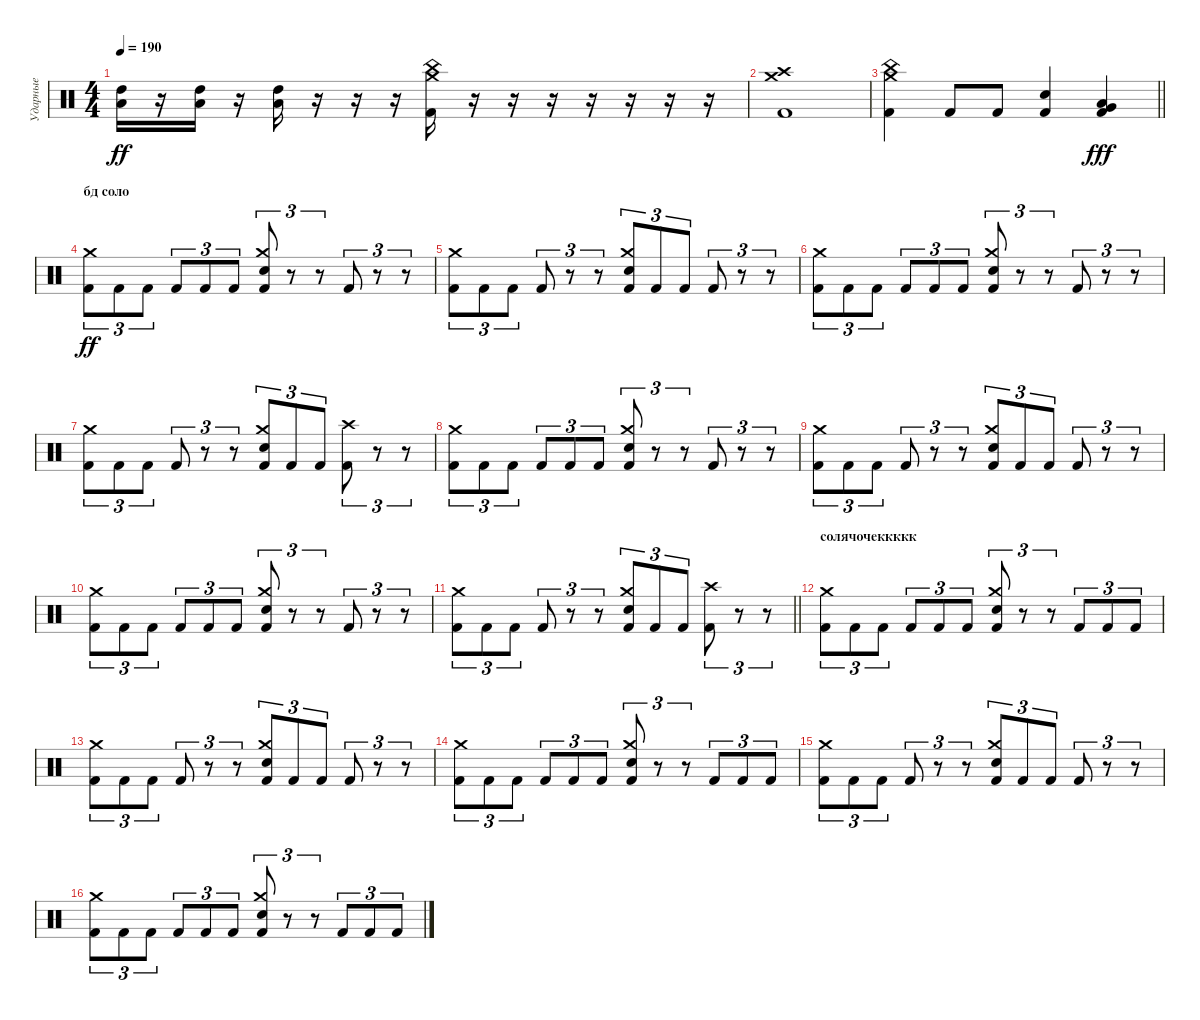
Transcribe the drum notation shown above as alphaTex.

\track ("Ударные" "Ударные") {instrument percussion}
\staff {score}
\articulation defaults
\ts (4 4)
\tempo 190
\clef neutral
\ks c
("Low Tom (hit)" "High Tom (hit)").16{dy ff} r.16 ("Low Tom (hit)" "High Tom (hit)").16 r.16 ("Low Tom (hit)" "High Tom (hit)").16 r.16 r.16 r.16 ("Kick (hit) 2" "China (hit)" "Crash medium (hit)").16 r.16 r.16 r.16 r.16 r.16 r.16 r.16 |
("Kick (hit) 2" "Crash medium (hit)" "Crash high (hit)").1 |
\barLineRight lightlight
("Kick (hit) 2" "China (hit)" "Crash medium (hit)").4 "Kick (hit) 2".8 "Kick (hit) 2".8 ("Kick (hit) 2" "Snare (hit) 2").4 ("Kick (hit) 2" "Low Tom (hit)" "Very Low Tom (hit)").4{dy fff} |
\section ("" "бд соло")
("Kick (hit) 2" "Crash medium (hit)").8{tu (3 2) dy ff} "Kick (hit) 2".8{tu (3 2)} "Kick (hit) 2".8{tu (3 2)} "Kick (hit) 2".8{tu (3 2)} "Kick (hit) 2".8{tu (3 2)} "Kick (hit) 2".8{tu (3 2)} ("Kick (hit) 2" "Snare (hit) 2" "Crash medium (hit)").8{tu (3 2)} r.8{tu (3 2)} r.8{tu (3 2)} "Kick (hit) 2".8{tu (3 2)} r.8{tu (3 2)} r.8{tu (3 2)} |
("Kick (hit) 2" "Crash medium (hit)").8{tu (3 2)} "Kick (hit) 2".8{tu (3 2)} "Kick (hit) 2".8{tu (3 2)} "Kick (hit) 2".8{tu (3 2)} r.8{tu (3 2)} r.8{tu (3 2)} ("Kick (hit) 2" "Snare (hit) 2" "Crash medium (hit)").8{tu (3 2)} "Kick (hit) 2".8{tu (3 2)} "Kick (hit) 2".8{tu (3 2)} "Kick (hit) 2".8{tu (3 2)} r.8{tu (3 2)} r.8{tu (3 2)} |
("Kick (hit) 2" "Crash medium (hit)").8{tu (3 2)} "Kick (hit) 2".8{tu (3 2)} "Kick (hit) 2".8{tu (3 2)} "Kick (hit) 2".8{tu (3 2)} "Kick (hit) 2".8{tu (3 2)} "Kick (hit) 2".8{tu (3 2)} ("Kick (hit) 2" "Snare (hit) 2" "Crash medium (hit)").8{tu (3 2)} r.8{tu (3 2)} r.8{tu (3 2)} "Kick (hit) 2".8{tu (3 2)} r.8{tu (3 2)} r.8{tu (3 2)} |
("Kick (hit) 2" "Crash medium (hit)").8{tu (3 2)} "Kick (hit) 2".8{tu (3 2)} "Kick (hit) 2".8{tu (3 2)} "Kick (hit) 2".8{tu (3 2)} r.8{tu (3 2)} r.8{tu (3 2)} ("Kick (hit) 2" "Snare (hit) 2" "Crash medium (hit)").8{tu (3 2)} "Kick (hit) 2".8{tu (3 2)} "Kick (hit) 2".8{tu (3 2)} ("Kick (hit) 2" "Crash high (hit)").8{tu (3 2)} r.8{tu (3 2)} r.8{tu (3 2)} |
("Kick (hit) 2" "Crash medium (hit)").8{tu (3 2)} "Kick (hit) 2".8{tu (3 2)} "Kick (hit) 2".8{tu (3 2)} "Kick (hit) 2".8{tu (3 2)} "Kick (hit) 2".8{tu (3 2)} "Kick (hit) 2".8{tu (3 2)} ("Kick (hit) 2" "Snare (hit) 2" "Crash medium (hit)").8{tu (3 2)} r.8{tu (3 2)} r.8{tu (3 2)} "Kick (hit) 2".8{tu (3 2)} r.8{tu (3 2)} r.8{tu (3 2)} |
("Kick (hit) 2" "Crash medium (hit)").8{tu (3 2)} "Kick (hit) 2".8{tu (3 2)} "Kick (hit) 2".8{tu (3 2)} "Kick (hit) 2".8{tu (3 2)} r.8{tu (3 2)} r.8{tu (3 2)} ("Kick (hit) 2" "Snare (hit) 2" "Crash medium (hit)").8{tu (3 2)} "Kick (hit) 2".8{tu (3 2)} "Kick (hit) 2".8{tu (3 2)} "Kick (hit) 2".8{tu (3 2)} r.8{tu (3 2)} r.8{tu (3 2)} |
("Kick (hit) 2" "Crash medium (hit)").8{tu (3 2)} "Kick (hit) 2".8{tu (3 2)} "Kick (hit) 2".8{tu (3 2)} "Kick (hit) 2".8{tu (3 2)} "Kick (hit) 2".8{tu (3 2)} "Kick (hit) 2".8{tu (3 2)} ("Kick (hit) 2" "Snare (hit) 2" "Crash medium (hit)").8{tu (3 2)} r.8{tu (3 2)} r.8{tu (3 2)} "Kick (hit) 2".8{tu (3 2)} r.8{tu (3 2)} r.8{tu (3 2)} |
\barLineRight lightlight
("Kick (hit) 2" "Crash medium (hit)").8{tu (3 2)} "Kick (hit) 2".8{tu (3 2)} "Kick (hit) 2".8{tu (3 2)} "Kick (hit) 2".8{tu (3 2)} r.8{tu (3 2)} r.8{tu (3 2)} ("Kick (hit) 2" "Snare (hit) 2" "Crash medium (hit)").8{tu (3 2)} "Kick (hit) 2".8{tu (3 2)} "Kick (hit) 2".8{tu (3 2)} ("Kick (hit) 2" "Crash high (hit)").8{tu (3 2)} r.8{tu (3 2)} r.8{tu (3 2)} |
\section ("" "солячочеккккк")
("Kick (hit) 2" "Crash medium (hit)").8{tu (3 2)} "Kick (hit) 2".8{tu (3 2)} "Kick (hit) 2".8{tu (3 2)} "Kick (hit) 2".8{tu (3 2)} "Kick (hit) 2".8{tu (3 2)} "Kick (hit) 2".8{tu (3 2)} ("Kick (hit) 2" "Snare (hit) 2" "Crash medium (hit)").8{tu (3 2)} r.8{tu (3 2)} r.8{tu (3 2)} "Kick (hit) 2".8{tu (3 2)} "Kick (hit) 2".8{tu (3 2)} "Kick (hit) 2".8{tu (3 2)} |
("Kick (hit) 2" "Crash medium (hit)").8{tu (3 2)} "Kick (hit) 2".8{tu (3 2)} "Kick (hit) 2".8{tu (3 2)} "Kick (hit) 2".8{tu (3 2)} r.8{tu (3 2)} r.8{tu (3 2)} ("Kick (hit) 2" "Snare (hit) 2" "Crash medium (hit)").8{tu (3 2)} "Kick (hit) 2".8{tu (3 2)} "Kick (hit) 2".8{tu (3 2)} "Kick (hit) 2".8{tu (3 2)} r.8{tu (3 2)} r.8{tu (3 2)} |
("Kick (hit) 2" "Crash medium (hit)").8{tu (3 2)} "Kick (hit) 2".8{tu (3 2)} "Kick (hit) 2".8{tu (3 2)} "Kick (hit) 2".8{tu (3 2)} "Kick (hit) 2".8{tu (3 2)} "Kick (hit) 2".8{tu (3 2)} ("Kick (hit) 2" "Snare (hit) 2" "Crash medium (hit)").8{tu (3 2)} r.8{tu (3 2)} r.8{tu (3 2)} "Kick (hit) 2".8{tu (3 2)} "Kick (hit) 2".8{tu (3 2)} "Kick (hit) 2".8{tu (3 2)} |
("Kick (hit) 2" "Crash medium (hit)").8{tu (3 2)} "Kick (hit) 2".8{tu (3 2)} "Kick (hit) 2".8{tu (3 2)} "Kick (hit) 2".8{tu (3 2)} r.8{tu (3 2)} r.8{tu (3 2)} ("Kick (hit) 2" "Snare (hit) 2" "Crash medium (hit)").8{tu (3 2)} "Kick (hit) 2".8{tu (3 2)} "Kick (hit) 2".8{tu (3 2)} "Kick (hit) 2".8{tu (3 2)} r.8{tu (3 2)} r.8{tu (3 2)} |
("Kick (hit) 2" "Crash medium (hit)").8{tu (3 2)} "Kick (hit) 2".8{tu (3 2)} "Kick (hit) 2".8{tu (3 2)} "Kick (hit) 2".8{tu (3 2)} "Kick (hit) 2".8{tu (3 2)} "Kick (hit) 2".8{tu (3 2)} ("Kick (hit) 2" "Snare (hit) 2" "Crash medium (hit)").8{tu (3 2)} r.8{tu (3 2)} r.8{tu (3 2)} "Kick (hit) 2".8{tu (3 2)} "Kick (hit) 2".8{tu (3 2)} "Kick (hit) 2".8{tu (3 2)}
